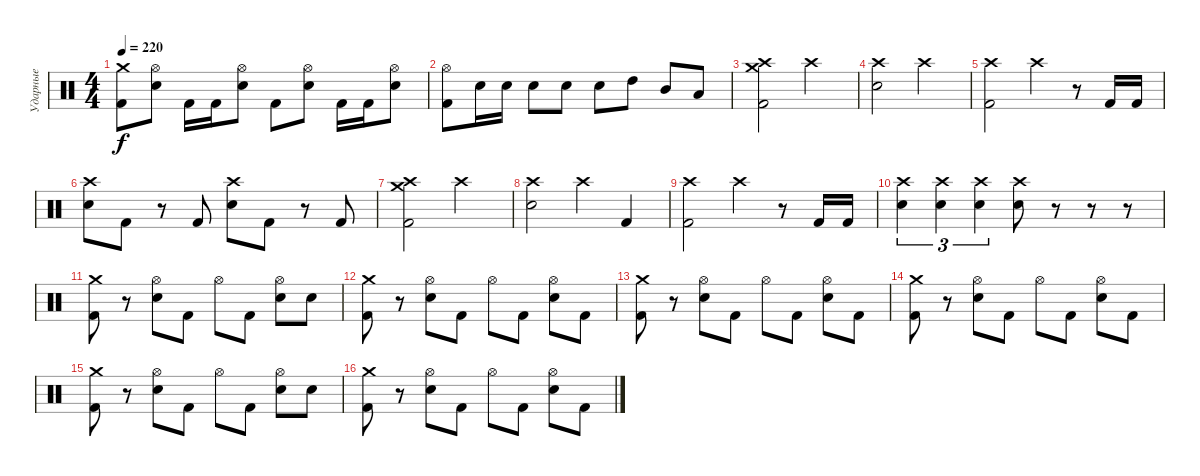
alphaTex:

\track ("Ударные" "Ударные") {instrument percussion}
\staff {score}
\articulation defaults
\ts (4 4)
\tempo 220
\clef neutral
\ks c
("Crash medium (hit)" "Kick (hit) 2").8{dy f} ("Hi-Hat (open)" "Electric Snare (hit)").8 "Kick (hit) 2".16 "Kick (hit) 2".16 ("Hi-Hat (open)" "Electric Snare (hit)").8 "Kick (hit) 2".8 ("Hi-Hat (open)" "Electric Snare (hit)").8 "Kick (hit) 2".16 "Kick (hit) 2".16 ("Hi-Hat (open)" "Electric Snare (hit)").8 |
("Hi-Hat (open)" "Kick (hit) 2").8 "Electric Snare (hit)".16 "Electric Snare (hit)".16 "Electric Snare (hit)".8 "Electric Snare (hit)".8 "Electric Snare (hit)".8 "High Tom (hit)".8 "Mid Tom (hit)".8 "Low Floor Tom (hit)".8 |
("Crash high (hit)" "Crash medium (hit)" "Kick (hit) 2").2 "Crash high (hit)".2 |
("Crash high (hit)" "Electric Snare (hit)").2 "Crash high (hit)".2 |
("Crash high (hit)" "Kick (hit) 2").2 "Crash high (hit)".4 r.8 "Kick (hit) 2".16 "Kick (hit) 2".16 |
("Crash high (hit)" "Electric Snare (hit)").8 "Kick (hit) 2".8 r.8 "Kick (hit) 2".8 ("Crash high (hit)" "Electric Snare (hit)").8 "Kick (hit) 2".8 r.8 "Kick (hit) 2".8 |
("Crash high (hit)" "Crash medium (hit)" "Kick (hit) 2").2 "Crash high (hit)".2 |
("Crash high (hit)" "Electric Snare (hit)").2 "Crash high (hit)".4 "Kick (hit) 2".4 |
("Crash high (hit)" "Kick (hit) 2").2 "Crash high (hit)".4 r.8 "Kick (hit) 2".16 "Kick (hit) 2".16 |
("Crash high (hit)" "Electric Snare (hit)").4{tu (3 2)} ("Crash high (hit)" "Electric Snare (hit)").4{tu (3 2)} ("Crash high (hit)" "Electric Snare (hit)").4{tu (3 2)} ("Crash high (hit)" "Electric Snare (hit)").8 r.8 r.8 r.8 |
("Crash medium (hit)" "Kick (hit) 2").8 r.8 ("Hi-Hat (open)" "Electric Snare (hit)").8 "Kick (hit) 2".8 "Hi-Hat (open)".8 "Kick (hit) 2".8 ("Hi-Hat (open)" "Electric Snare (hit)").8 "Electric Snare (hit)".8 |
("Crash medium (hit)" "Kick (hit) 2").8 r.8 ("Hi-Hat (open)" "Electric Snare (hit)").8 "Kick (hit) 2".8 "Hi-Hat (open)".8 "Kick (hit) 2".8 ("Hi-Hat (open)" "Electric Snare (hit)").8 "Kick (hit) 2".8 |
("Crash medium (hit)" "Kick (hit) 2").8 r.8 ("Hi-Hat (open)" "Electric Snare (hit)").8 "Kick (hit) 2".8 "Hi-Hat (open)".8 "Kick (hit) 2".8 ("Hi-Hat (open)" "Electric Snare (hit)").8 "Kick (hit) 2".8 |
("Crash medium (hit)" "Kick (hit) 2").8 r.8 ("Hi-Hat (open)" "Electric Snare (hit)").8 "Kick (hit) 2".8 "Hi-Hat (open)".8 "Kick (hit) 2".8 ("Hi-Hat (open)" "Electric Snare (hit)").8 "Kick (hit) 2".8 |
("Crash medium (hit)" "Kick (hit) 2").8 r.8 ("Hi-Hat (open)" "Electric Snare (hit)").8 "Kick (hit) 2".8 "Hi-Hat (open)".8 "Kick (hit) 2".8 ("Hi-Hat (open)" "Electric Snare (hit)").8 "Electric Snare (hit)".8 |
("Crash medium (hit)" "Kick (hit) 2").8 r.8 ("Hi-Hat (open)" "Electric Snare (hit)").8 "Kick (hit) 2".8 "Hi-Hat (open)".8 "Kick (hit) 2".8 ("Hi-Hat (open)" "Electric Snare (hit)").8 "Kick (hit) 2".8
